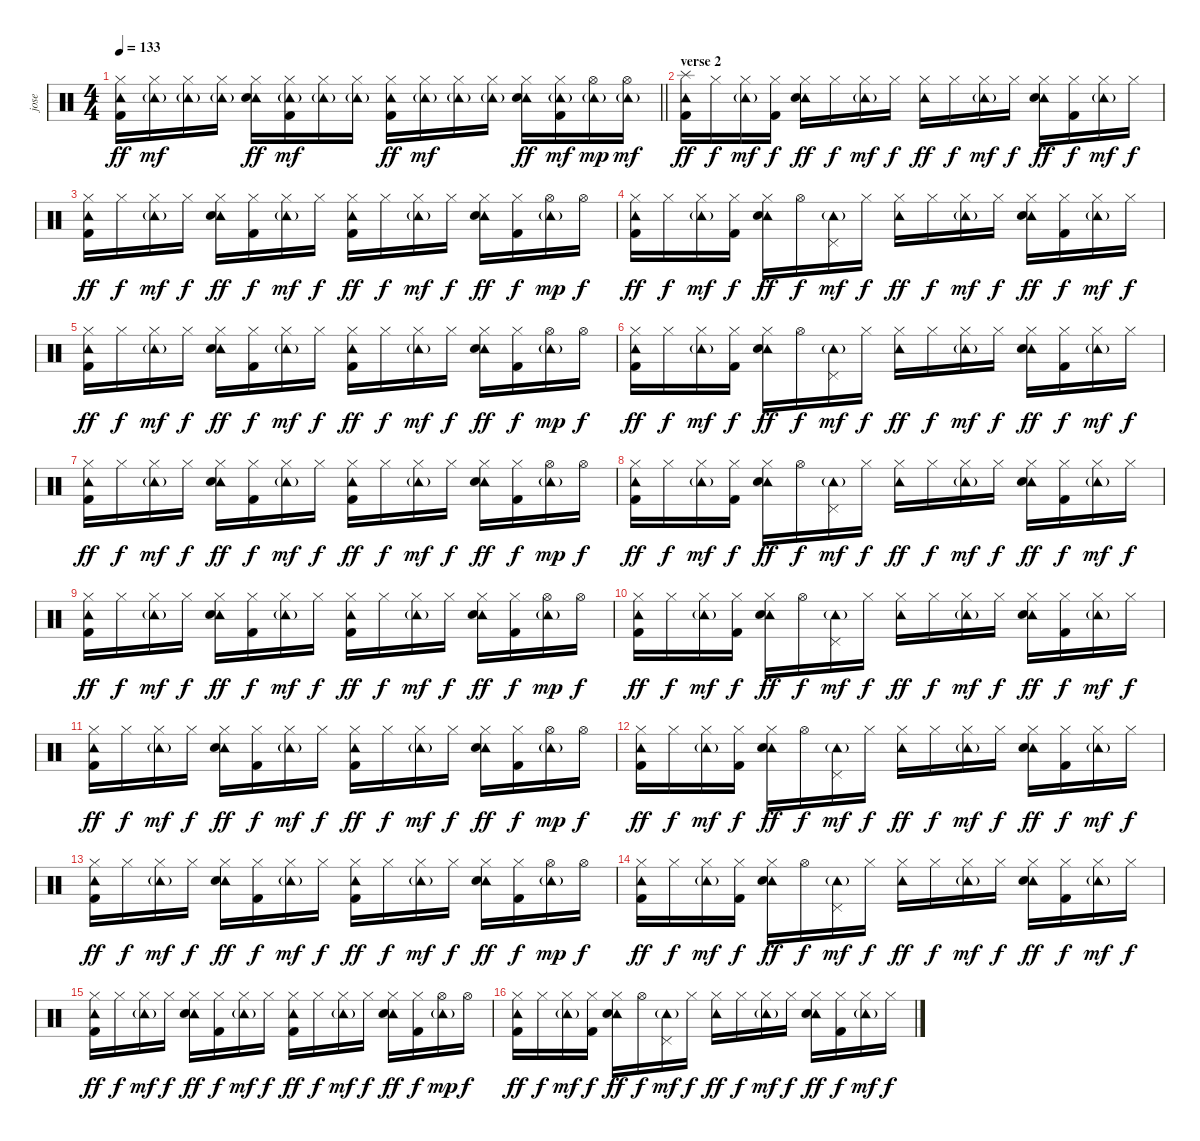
\track ("jose" "jose") {instrument percussion}
\staff {score}
\articulation defaults
\ts (4 4)
\tempo 133
\clef neutral
\barLineRight lightlight
\ks c
("Tambourine (hit)" "Hi-Hat (closed)" "Kick (hit) 2").16{dy ff} ("Tambourine (hit)"{g} "Hi-Hat (closed)").16{dy mf} ("Tambourine (hit)"{g} "Hi-Hat (closed)").16 ("Tambourine (hit)"{g} "Hi-Hat (closed)").16 ("Tambourine (hit)" "Hi-Hat (closed)" "Snare (hit) 2").16{dy ff} ("Tambourine (hit)"{g} "Hi-Hat (closed)" "Kick (hit) 2").16{dy mf} ("Tambourine (hit)"{g} "Hi-Hat (closed)").16 ("Tambourine (hit)"{g} "Hi-Hat (closed)").16 ("Tambourine (hit)" "Hi-Hat (closed)" "Kick (hit) 2").16{dy ff} ("Tambourine (hit)"{g} "Hi-Hat (closed)").16{dy mf} ("Tambourine (hit)"{g} "Hi-Hat (closed)").16 ("Tambourine (hit)"{g} "Hi-Hat (closed)").16 ("Tambourine (hit)" "Hi-Hat (closed)" "Snare (hit) 2").16{dy ff} ("Tambourine (hit)"{g} "Hi-Hat (closed)" "Kick (hit) 2").16{dy mf} ("Tambourine (hit)"{g} "Hi-Hat (open)").16{dy mp} ("Tambourine (hit)"{g} "Hi-Hat (open)").16{dy mf} |
\section ("" "verse 2")
("Tambourine (hit)" "Splash (hit)" "Kick (hit) 2").16{dy ff} "Hi-Hat (closed)".16{dy f} ("Tambourine (hit)"{g} "Hi-Hat (closed)").16{dy mf} ("Hi-Hat (closed)" "Kick (hit) 2").16{dy f} ("Tambourine (hit)" "Hi-Hat (closed)" "Snare (hit) 2").16{dy ff} "Hi-Hat (closed)".16{dy f} ("Tambourine (hit)"{g} "Hi-Hat (closed)").16{dy mf} "Hi-Hat (closed)".16{dy f} ("Tambourine (hit)" "Hi-Hat (closed)").16{dy ff} "Hi-Hat (closed)".16{dy f} ("Tambourine (hit)"{g} "Hi-Hat (closed)").16{dy mf} "Hi-Hat (closed)".16{dy f} ("Tambourine (hit)" "Hi-Hat (closed)" "Snare (hit) 2").16{dy ff} ("Hi-Hat (closed)" "Kick (hit) 2").16{dy f} ("Tambourine (hit)"{g} "Hi-Hat (closed)").16{dy mf} "Hi-Hat (closed)".16{dy f} |
("Tambourine (hit)" "Hi-Hat (closed)" "Kick (hit) 2").16{dy ff} "Hi-Hat (closed)".16{dy f} ("Tambourine (hit)"{g} "Hi-Hat (closed)").16{dy mf} "Hi-Hat (closed)".16{dy f} ("Tambourine (hit)" "Hi-Hat (closed)" "Snare (hit) 2").16{dy ff} ("Hi-Hat (closed)" "Kick (hit) 2").16{dy f} ("Tambourine (hit)"{g} "Hi-Hat (closed)").16{dy mf} "Hi-Hat (closed)".16{dy f} ("Tambourine (hit)" "Hi-Hat (closed)" "Kick (hit) 2").16{dy ff} "Hi-Hat (closed)".16{dy f} ("Tambourine (hit)"{g} "Hi-Hat (closed)").16{dy mf} "Hi-Hat (closed)".16{dy f} ("Tambourine (hit)" "Hi-Hat (closed)" "Snare (hit) 2").16{dy ff} ("Hi-Hat (closed)" "Kick (hit) 2").16{dy f} ("Tambourine (hit)"{g} "Hi-Hat (open)").16{dy mp} "Hi-Hat (open)".16{dy f} |
("Tambourine (hit)" "Hi-Hat (closed)" "Kick (hit) 2").16{dy ff} "Hi-Hat (closed)".16{dy f} ("Tambourine (hit)"{g} "Hi-Hat (closed)").16{dy mf} ("Hi-Hat (closed)" "Kick (hit) 2").16{dy f} ("Tambourine (hit)" "Hi-Hat (closed)" "Snare (hit) 2").16{dy ff} "Hi-Hat (open)".16{dy f} ("Tambourine (hit)"{g} "Pedal Hi-Hat (hit)").16{dy mf} "Hi-Hat (closed)".16{dy f} ("Tambourine (hit)" "Hi-Hat (closed)").16{dy ff} "Hi-Hat (closed)".16{dy f} ("Tambourine (hit)"{g} "Hi-Hat (closed)").16{dy mf} "Hi-Hat (closed)".16{dy f} ("Tambourine (hit)" "Hi-Hat (closed)" "Snare (hit) 2").16{dy ff} ("Hi-Hat (closed)" "Kick (hit) 2").16{dy f} ("Tambourine (hit)"{g} "Hi-Hat (closed)").16{dy mf} "Hi-Hat (closed)".16{dy f} |
("Tambourine (hit)" "Hi-Hat (closed)" "Kick (hit) 2").16{dy ff} "Hi-Hat (closed)".16{dy f} ("Tambourine (hit)"{g} "Hi-Hat (closed)").16{dy mf} "Hi-Hat (closed)".16{dy f} ("Tambourine (hit)" "Hi-Hat (closed)" "Snare (hit) 2").16{dy ff} ("Hi-Hat (closed)" "Kick (hit) 2").16{dy f} ("Tambourine (hit)"{g} "Hi-Hat (closed)").16{dy mf} "Hi-Hat (closed)".16{dy f} ("Tambourine (hit)" "Hi-Hat (closed)" "Kick (hit) 2").16{dy ff} "Hi-Hat (closed)".16{dy f} ("Tambourine (hit)"{g} "Hi-Hat (closed)").16{dy mf} "Hi-Hat (closed)".16{dy f} ("Tambourine (hit)" "Hi-Hat (closed)" "Snare (hit) 2").16{dy ff} ("Hi-Hat (closed)" "Kick (hit) 2").16{dy f} ("Tambourine (hit)"{g} "Hi-Hat (open)").16{dy mp} "Hi-Hat (open)".16{dy f} |
("Tambourine (hit)" "Hi-Hat (closed)" "Kick (hit) 2").16{dy ff} "Hi-Hat (closed)".16{dy f} ("Tambourine (hit)"{g} "Hi-Hat (closed)").16{dy mf} ("Hi-Hat (closed)" "Kick (hit) 2").16{dy f} ("Tambourine (hit)" "Hi-Hat (closed)" "Snare (hit) 2").16{dy ff} "Hi-Hat (open)".16{dy f} ("Tambourine (hit)"{g} "Pedal Hi-Hat (hit)").16{dy mf} "Hi-Hat (closed)".16{dy f} ("Tambourine (hit)" "Hi-Hat (closed)").16{dy ff} "Hi-Hat (closed)".16{dy f} ("Tambourine (hit)"{g} "Hi-Hat (closed)").16{dy mf} "Hi-Hat (closed)".16{dy f} ("Tambourine (hit)" "Hi-Hat (closed)" "Snare (hit) 2").16{dy ff} ("Hi-Hat (closed)" "Kick (hit) 2").16{dy f} ("Tambourine (hit)"{g} "Hi-Hat (closed)").16{dy mf} "Hi-Hat (closed)".16{dy f} |
("Tambourine (hit)" "Hi-Hat (closed)" "Kick (hit) 2").16{dy ff} "Hi-Hat (closed)".16{dy f} ("Tambourine (hit)"{g} "Hi-Hat (closed)").16{dy mf} "Hi-Hat (closed)".16{dy f} ("Tambourine (hit)" "Hi-Hat (closed)" "Snare (hit) 2").16{dy ff} ("Hi-Hat (closed)" "Kick (hit) 2").16{dy f} ("Tambourine (hit)"{g} "Hi-Hat (closed)").16{dy mf} "Hi-Hat (closed)".16{dy f} ("Tambourine (hit)" "Hi-Hat (closed)" "Kick (hit) 2").16{dy ff} "Hi-Hat (closed)".16{dy f} ("Tambourine (hit)"{g} "Hi-Hat (closed)").16{dy mf} "Hi-Hat (closed)".16{dy f} ("Tambourine (hit)" "Hi-Hat (closed)" "Snare (hit) 2").16{dy ff} ("Hi-Hat (closed)" "Kick (hit) 2").16{dy f} ("Tambourine (hit)"{g} "Hi-Hat (open)").16{dy mp} "Hi-Hat (open)".16{dy f} |
("Tambourine (hit)" "Hi-Hat (closed)" "Kick (hit) 2").16{dy ff} "Hi-Hat (closed)".16{dy f} ("Tambourine (hit)"{g} "Hi-Hat (closed)").16{dy mf} ("Hi-Hat (closed)" "Kick (hit) 2").16{dy f} ("Tambourine (hit)" "Hi-Hat (closed)" "Snare (hit) 2").16{dy ff} "Hi-Hat (open)".16{dy f} ("Tambourine (hit)"{g} "Pedal Hi-Hat (hit)").16{dy mf} "Hi-Hat (closed)".16{dy f} ("Tambourine (hit)" "Hi-Hat (closed)").16{dy ff} "Hi-Hat (closed)".16{dy f} ("Tambourine (hit)"{g} "Hi-Hat (closed)").16{dy mf} "Hi-Hat (closed)".16{dy f} ("Tambourine (hit)" "Hi-Hat (closed)" "Snare (hit) 2").16{dy ff} ("Hi-Hat (closed)" "Kick (hit) 2").16{dy f} ("Tambourine (hit)"{g} "Hi-Hat (closed)").16{dy mf} "Hi-Hat (closed)".16{dy f} |
("Tambourine (hit)" "Hi-Hat (closed)" "Kick (hit) 2").16{dy ff} "Hi-Hat (closed)".16{dy f} ("Tambourine (hit)"{g} "Hi-Hat (closed)").16{dy mf} "Hi-Hat (closed)".16{dy f} ("Tambourine (hit)" "Hi-Hat (closed)" "Snare (hit) 2").16{dy ff} ("Hi-Hat (closed)" "Kick (hit) 2").16{dy f} ("Tambourine (hit)"{g} "Hi-Hat (closed)").16{dy mf} "Hi-Hat (closed)".16{dy f} ("Tambourine (hit)" "Hi-Hat (closed)" "Kick (hit) 2").16{dy ff} "Hi-Hat (closed)".16{dy f} ("Tambourine (hit)"{g} "Hi-Hat (closed)").16{dy mf} "Hi-Hat (closed)".16{dy f} ("Tambourine (hit)" "Hi-Hat (closed)" "Snare (hit) 2").16{dy ff} ("Hi-Hat (closed)" "Kick (hit) 2").16{dy f} ("Tambourine (hit)"{g} "Hi-Hat (open)").16{dy mp} "Hi-Hat (open)".16{dy f} |
("Tambourine (hit)" "Hi-Hat (closed)" "Kick (hit) 2").16{dy ff} "Hi-Hat (closed)".16{dy f} ("Tambourine (hit)"{g} "Hi-Hat (closed)").16{dy mf} ("Hi-Hat (closed)" "Kick (hit) 2").16{dy f} ("Tambourine (hit)" "Hi-Hat (closed)" "Snare (hit) 2").16{dy ff} "Hi-Hat (open)".16{dy f} ("Tambourine (hit)"{g} "Pedal Hi-Hat (hit)").16{dy mf} "Hi-Hat (closed)".16{dy f} ("Tambourine (hit)" "Hi-Hat (closed)").16{dy ff} "Hi-Hat (closed)".16{dy f} ("Tambourine (hit)"{g} "Hi-Hat (closed)").16{dy mf} "Hi-Hat (closed)".16{dy f} ("Tambourine (hit)" "Hi-Hat (closed)" "Snare (hit) 2").16{dy ff} ("Hi-Hat (closed)" "Kick (hit) 2").16{dy f} ("Tambourine (hit)"{g} "Hi-Hat (closed)").16{dy mf} "Hi-Hat (closed)".16{dy f} |
("Tambourine (hit)" "Hi-Hat (closed)" "Kick (hit) 2").16{dy ff} "Hi-Hat (closed)".16{dy f} ("Tambourine (hit)"{g} "Hi-Hat (closed)").16{dy mf} "Hi-Hat (closed)".16{dy f} ("Tambourine (hit)" "Hi-Hat (closed)" "Snare (hit) 2").16{dy ff} ("Hi-Hat (closed)" "Kick (hit) 2").16{dy f} ("Tambourine (hit)"{g} "Hi-Hat (closed)").16{dy mf} "Hi-Hat (closed)".16{dy f} ("Tambourine (hit)" "Hi-Hat (closed)" "Kick (hit) 2").16{dy ff} "Hi-Hat (closed)".16{dy f} ("Tambourine (hit)"{g} "Hi-Hat (closed)").16{dy mf} "Hi-Hat (closed)".16{dy f} ("Tambourine (hit)" "Hi-Hat (closed)" "Snare (hit) 2").16{dy ff} ("Hi-Hat (closed)" "Kick (hit) 2").16{dy f} ("Tambourine (hit)"{g} "Hi-Hat (open)").16{dy mp} "Hi-Hat (open)".16{dy f} |
("Tambourine (hit)" "Hi-Hat (closed)" "Kick (hit) 2").16{dy ff} "Hi-Hat (closed)".16{dy f} ("Tambourine (hit)"{g} "Hi-Hat (closed)").16{dy mf} ("Hi-Hat (closed)" "Kick (hit) 2").16{dy f} ("Tambourine (hit)" "Hi-Hat (closed)" "Snare (hit) 2").16{dy ff} "Hi-Hat (open)".16{dy f} ("Tambourine (hit)"{g} "Pedal Hi-Hat (hit)").16{dy mf} "Hi-Hat (closed)".16{dy f} ("Tambourine (hit)" "Hi-Hat (closed)").16{dy ff} "Hi-Hat (closed)".16{dy f} ("Tambourine (hit)"{g} "Hi-Hat (closed)").16{dy mf} "Hi-Hat (closed)".16{dy f} ("Tambourine (hit)" "Hi-Hat (closed)" "Snare (hit) 2").16{dy ff} ("Hi-Hat (closed)" "Kick (hit) 2").16{dy f} ("Tambourine (hit)"{g} "Hi-Hat (closed)").16{dy mf} "Hi-Hat (closed)".16{dy f} |
("Tambourine (hit)" "Hi-Hat (closed)" "Kick (hit) 2").16{dy ff} "Hi-Hat (closed)".16{dy f} ("Tambourine (hit)"{g} "Hi-Hat (closed)").16{dy mf} "Hi-Hat (closed)".16{dy f} ("Tambourine (hit)" "Hi-Hat (closed)" "Snare (hit) 2").16{dy ff} ("Hi-Hat (closed)" "Kick (hit) 2").16{dy f} ("Tambourine (hit)"{g} "Hi-Hat (closed)").16{dy mf} "Hi-Hat (closed)".16{dy f} ("Tambourine (hit)" "Hi-Hat (closed)" "Kick (hit) 2").16{dy ff} "Hi-Hat (closed)".16{dy f} ("Tambourine (hit)"{g} "Hi-Hat (closed)").16{dy mf} "Hi-Hat (closed)".16{dy f} ("Tambourine (hit)" "Hi-Hat (closed)" "Snare (hit) 2").16{dy ff} ("Hi-Hat (closed)" "Kick (hit) 2").16{dy f} ("Tambourine (hit)"{g} "Hi-Hat (open)").16{dy mp} "Hi-Hat (open)".16{dy f} |
("Tambourine (hit)" "Hi-Hat (closed)" "Kick (hit) 2").16{dy ff} "Hi-Hat (closed)".16{dy f} ("Tambourine (hit)"{g} "Hi-Hat (closed)").16{dy mf} ("Hi-Hat (closed)" "Kick (hit) 2").16{dy f} ("Tambourine (hit)" "Hi-Hat (closed)" "Snare (hit) 2").16{dy ff} "Hi-Hat (open)".16{dy f} ("Tambourine (hit)"{g} "Pedal Hi-Hat (hit)").16{dy mf} "Hi-Hat (closed)".16{dy f} ("Tambourine (hit)" "Hi-Hat (closed)").16{dy ff} "Hi-Hat (closed)".16{dy f} ("Tambourine (hit)"{g} "Hi-Hat (closed)").16{dy mf} "Hi-Hat (closed)".16{dy f} ("Tambourine (hit)" "Hi-Hat (closed)" "Snare (hit) 2").16{dy ff} ("Hi-Hat (closed)" "Kick (hit) 2").16{dy f} ("Tambourine (hit)"{g} "Hi-Hat (closed)").16{dy mf} "Hi-Hat (closed)".16{dy f} |
("Tambourine (hit)" "Hi-Hat (closed)" "Kick (hit) 2").16{dy ff} "Hi-Hat (closed)".16{dy f} ("Tambourine (hit)"{g} "Hi-Hat (closed)").16{dy mf} "Hi-Hat (closed)".16{dy f} ("Tambourine (hit)" "Hi-Hat (closed)" "Snare (hit) 2").16{dy ff} ("Hi-Hat (closed)" "Kick (hit) 2").16{dy f} ("Tambourine (hit)"{g} "Hi-Hat (closed)").16{dy mf} "Hi-Hat (closed)".16{dy f} ("Tambourine (hit)" "Hi-Hat (closed)" "Kick (hit) 2").16{dy ff} "Hi-Hat (closed)".16{dy f} ("Tambourine (hit)"{g} "Hi-Hat (closed)").16{dy mf} "Hi-Hat (closed)".16{dy f} ("Tambourine (hit)" "Hi-Hat (closed)" "Snare (hit) 2").16{dy ff} ("Hi-Hat (closed)" "Kick (hit) 2").16{dy f} ("Tambourine (hit)"{g} "Hi-Hat (open)").16{dy mp} "Hi-Hat (open)".16{dy f} |
("Tambourine (hit)" "Hi-Hat (closed)" "Kick (hit) 2").16{dy ff} "Hi-Hat (closed)".16{dy f} ("Tambourine (hit)"{g} "Hi-Hat (closed)").16{dy mf} ("Hi-Hat (closed)" "Kick (hit) 2").16{dy f} ("Tambourine (hit)" "Hi-Hat (closed)" "Snare (hit) 2").16{dy ff} "Hi-Hat (open)".16{dy f} ("Tambourine (hit)"{g} "Pedal Hi-Hat (hit)").16{dy mf} "Hi-Hat (closed)".16{dy f} ("Tambourine (hit)" "Hi-Hat (closed)").16{dy ff} "Hi-Hat (closed)".16{dy f} ("Tambourine (hit)"{g} "Hi-Hat (closed)").16{dy mf} "Hi-Hat (closed)".16{dy f} ("Tambourine (hit)" "Hi-Hat (closed)" "Snare (hit) 2").16{dy ff} ("Hi-Hat (closed)" "Kick (hit) 2").16{dy f} ("Tambourine (hit)"{g} "Hi-Hat (closed)").16{dy mf} "Hi-Hat (closed)".16{dy f}
